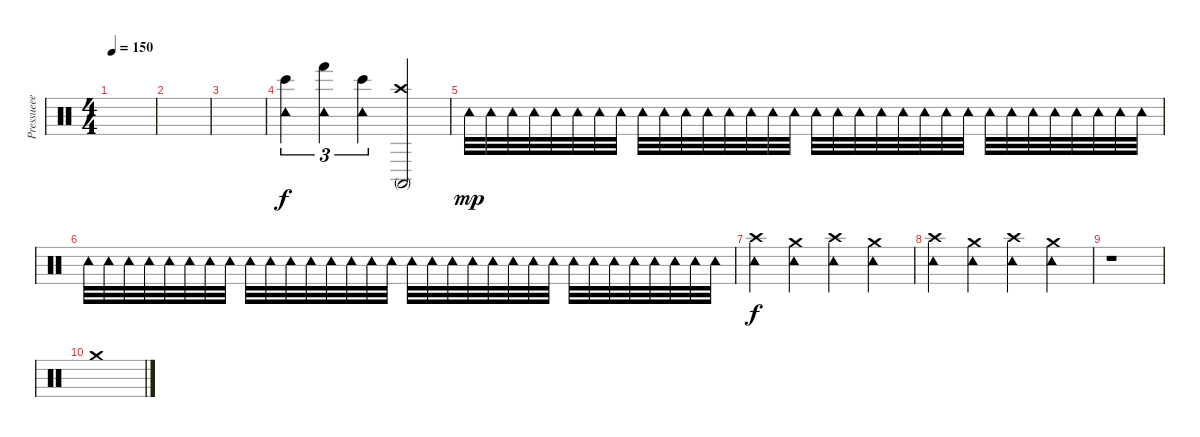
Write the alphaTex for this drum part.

\track ("Pressueee " "Pressueee ") {instrument percussion}
\staff {score}
\articulation defaults
\ts (4 4)
\tempo 150
\clef neutral
\ks c
|
|
|
("Tambourine (hit)" "Bongo High (hit)").4{tu (3 2)} ("Tambourine (hit)" "Hand (hit)").4{tu (3 2)} ("Tambourine (hit)" "Bongo High (hit)").4{tu (3 2)} ("Crash high (hit)" "Conga high (mute)").2 |
"Tambourine (hit)".32{dy mp} "Tambourine (hit)".32 "Tambourine (hit)".32 "Tambourine (hit)".32 "Tambourine (hit)".32 "Tambourine (hit)".32 "Tambourine (hit)".32 "Tambourine (hit)".32 "Tambourine (hit)".32 "Tambourine (hit)".32 "Tambourine (hit)".32 "Tambourine (hit)".32 "Tambourine (hit)".32 "Tambourine (hit)".32 "Tambourine (hit)".32 "Tambourine (hit)".32 "Tambourine (hit)".32 "Tambourine (hit)".32 "Tambourine (hit)".32 "Tambourine (hit)".32 "Tambourine (hit)".32 "Tambourine (hit)".32 "Tambourine (hit)".32 "Tambourine (hit)".32 "Tambourine (hit)".32 "Tambourine (hit)".32 "Tambourine (hit)".32 "Tambourine (hit)".32 "Tambourine (hit)".32 "Tambourine (hit)".32 "Tambourine (hit)".32 "Tambourine (hit)".32 |
"Tambourine (hit)".32 "Tambourine (hit)".32 "Tambourine (hit)".32 "Tambourine (hit)".32 "Tambourine (hit)".32 "Tambourine (hit)".32 "Tambourine (hit)".32 "Tambourine (hit)".32 "Tambourine (hit)".32 "Tambourine (hit)".32 "Tambourine (hit)".32 "Tambourine (hit)".32 "Tambourine (hit)".32 "Tambourine (hit)".32 "Tambourine (hit)".32 "Tambourine (hit)".32 "Tambourine (hit)".32 "Tambourine (hit)".32 "Tambourine (hit)".32 "Tambourine (hit)".32 "Tambourine (hit)".32 "Tambourine (hit)".32 "Tambourine (hit)".32 "Tambourine (hit)".32 "Tambourine (hit)".32 "Tambourine (hit)".32 "Tambourine (hit)".32 "Tambourine (hit)".32 "Tambourine (hit)".32 "Tambourine (hit)".32 "Tambourine (hit)".32 "Tambourine (hit)".32 |
("Crash high (hit)" "Tambourine (hit)").4{dy f} ("Crash medium (hit)" "Tambourine (hit)").4 ("Crash high (hit)" "Tambourine (hit)").4 ("Crash medium (hit)" "Tambourine (hit)").4 |
("Crash high (hit)" "Tambourine (hit)").4 ("Crash medium (hit)" "Tambourine (hit)").4 ("Crash high (hit)" "Tambourine (hit)").4 ("Crash medium (hit)" "Tambourine (hit)").4 |
r.1 |
"Crash medium (hit)".1
